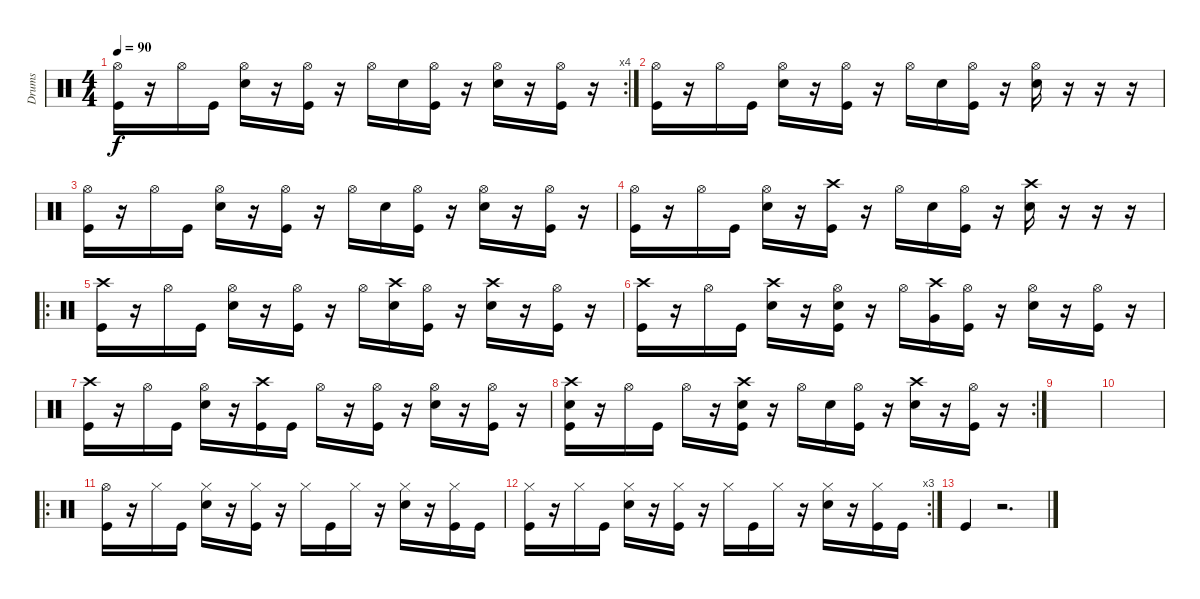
\track ("Drums" "Drums") {instrument percussion}
\staff {score}
\articulation defaults
\rc 4
\ts (4 4)
\tempo 90
\clef neutral
\ks c
("Hi-Hat (open)" "Kick (hit)").16{dy f} r.16 "Hi-Hat (open)".16 "Kick (hit)".16 ("Hi-Hat (open)" "Snare (hit) 2").16 r.16 ("Hi-Hat (open)" "Kick (hit)").16 r.16 "Hi-Hat (open)".16 "Snare (hit) 2".16 ("Hi-Hat (open)" "Kick (hit)").16 r.16 ("Hi-Hat (open)" "Snare (hit) 2").16 r.16 ("Hi-Hat (open)" "Kick (hit)").16 r.16 |
("Hi-Hat (open)" "Kick (hit)").16 r.16 "Hi-Hat (open)".16 "Kick (hit)".16 ("Hi-Hat (open)" "Snare (hit) 2").16 r.16 ("Hi-Hat (open)" "Kick (hit)").16 r.16 "Hi-Hat (open)".16 "Snare (hit) 2".16 ("Hi-Hat (open)" "Kick (hit)").16 r.16 ("Hi-Hat (open)" "Snare (hit) 2").16 r.16 r.16 r.16 |
("Hi-Hat (open)" "Kick (hit)").16 r.16 "Hi-Hat (open)".16 "Kick (hit)".16 ("Hi-Hat (open)" "Snare (hit) 2").16 r.16 ("Hi-Hat (open)" "Kick (hit)").16 r.16 "Hi-Hat (open)".16 "Snare (hit) 2".16 ("Hi-Hat (open)" "Kick (hit)").16 r.16 ("Hi-Hat (open)" "Snare (hit) 2").16 r.16 ("Hi-Hat (open)" "Kick (hit)").16 r.16 |
("Hi-Hat (open)" "Kick (hit)").16 r.16 "Hi-Hat (open)".16 "Kick (hit)".16 ("Hi-Hat (open)" "Snare (hit) 2").16 r.16 ("Crash high (hit)" "Kick (hit)").16 r.16 "Hi-Hat (open)".16 "Snare (hit) 2".16 ("Hi-Hat (open)" "Kick (hit)").16 r.16 ("Crash high (hit)" "Snare (hit) 2").16 r.16 r.16 r.16 |
\ro
("Crash high (hit)" "Kick (hit)").16 r.16 "Hi-Hat (open)".16 "Kick (hit)".16 ("Hi-Hat (open)" "Snare (hit) 2").16 r.16 ("Hi-Hat (open)" "Kick (hit)").16 r.16 "Hi-Hat (open)".16 ("Crash high (hit)" "Snare (hit) 2").16 ("Hi-Hat (open)" "Kick (hit)").16 r.16 ("Crash high (hit)" "Snare (hit) 2").16 r.16 ("Hi-Hat (open)" "Kick (hit)").16 r.16 |
("Crash high (hit)" "Kick (hit)").16 r.16 "Hi-Hat (open)".16 "Kick (hit)".16 ("Crash high (hit)" "Snare (hit) 2").16 r.16 ("Hi-Hat (open)" "Snare (hit) 2" "Kick (hit)").16 r.16 "Hi-Hat (open)".16 ("Crash high (hit)" "Very Low Tom (hit)").16 ("Hi-Hat (open)" "Kick (hit)").16 r.16 ("Hi-Hat (open)" "Snare (hit) 2").16 r.16 ("Hi-Hat (open)" "Kick (hit)").16 r.16 |
("Crash high (hit)" "Kick (hit)").16 r.16 "Hi-Hat (open)".16 "Kick (hit)".16 ("Hi-Hat (open)" "Snare (hit) 2").16 r.16 ("Crash high (hit)" "Kick (hit)").16 "Kick (hit)".16 "Hi-Hat (open)".16 r.16 ("Hi-Hat (open)" "Kick (hit)").16 r.16 ("Hi-Hat (open)" "Snare (hit) 2").16 r.16 ("Hi-Hat (open)" "Kick (hit)").16 r.16 |
\rc 2
("Crash high (hit)" "Snare (hit) 2" "Kick (hit)").16 r.16 "Hi-Hat (open)".16 "Kick (hit)".16 "Hi-Hat (open)".16 r.16 ("Crash high (hit)" "Snare (hit) 2" "Kick (hit)").16 r.16 "Hi-Hat (open)".16 "Snare (hit) 2".16 ("Hi-Hat (open)" "Kick (hit)").16 r.16 ("Crash high (hit)" "Snare (hit) 2").16 r.16 ("Hi-Hat (open)" "Kick (hit)").16 r.16 |
|
|
\ro
("Hi-Hat (open)" "Kick (hit)").16 r.16 "Hi-Hat (closed)".16 "Kick (hit)".16 ("Hi-Hat (closed)" "Snare (hit) 2").16 r.16 ("Hi-Hat (closed)" "Kick (hit)").16 r.16 "Hi-Hat (closed)".16 "Kick (hit)".16 "Hi-Hat (closed)".16 r.16 ("Hi-Hat (closed)" "Snare (hit) 2").16 r.16 ("Hi-Hat (closed)" "Kick (hit)").16 "Kick (hit)".16 |
\rc 3
("Hi-Hat (closed)" "Kick (hit)").16 r.16 "Hi-Hat (closed)".16 "Kick (hit)".16 ("Hi-Hat (closed)" "Snare (hit) 2").16 r.16 ("Hi-Hat (closed)" "Kick (hit)").16 r.16 "Hi-Hat (closed)".16 "Kick (hit)".16 "Hi-Hat (closed)".16 r.16 ("Hi-Hat (closed)" "Snare (hit) 2").16 r.16 ("Hi-Hat (closed)" "Kick (hit)").16 "Kick (hit)".16 |
"Kick (hit)".4 r.2{d}
